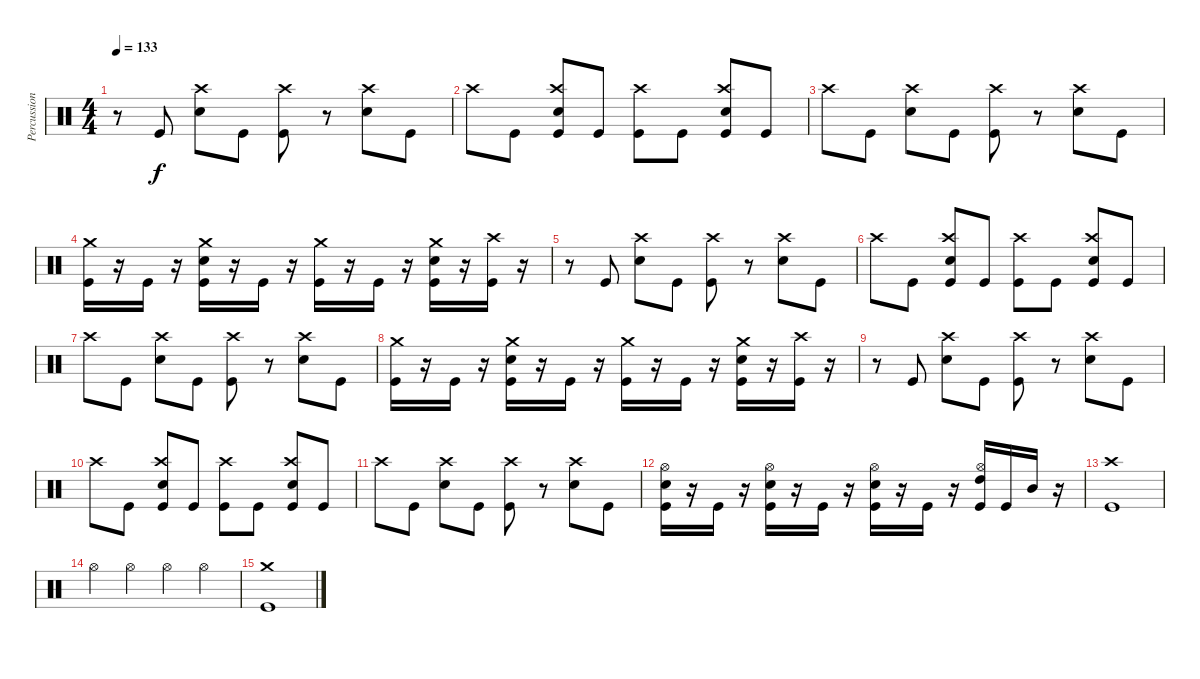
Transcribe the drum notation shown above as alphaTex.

\track ("Percussion" "Percussion") {instrument percussion}
\staff {score}
\articulation defaults
\ts (4 4)
\tempo 133
\clef neutral
\ks c
r.8{dy f} "Kick (hit)".8 ("Crash high (hit)" "Electric Snare (hit)").8 "Kick (hit)".8 ("Crash high (hit)" "Kick (hit)").8 r.8 ("Crash high (hit)" "Electric Snare (hit)").8 "Kick (hit)".8 |
"Crash high (hit)".8 "Kick (hit)".8 ("Crash high (hit)" "Electric Snare (hit)" "Kick (hit)").8 "Kick (hit)".8 ("Crash high (hit)" "Kick (hit)").8 "Kick (hit)".8 ("Crash high (hit)" "Electric Snare (hit)" "Kick (hit)").8 "Kick (hit)".8 |
"Crash high (hit)".8 "Kick (hit)".8 ("Crash high (hit)" "Electric Snare (hit)").8 "Kick (hit)".8 ("Crash high (hit)" "Kick (hit)").8 r.8 ("Crash high (hit)" "Electric Snare (hit)").8 "Kick (hit)".8 |
("Crash medium (hit)" "Kick (hit)").16 r.16 "Kick (hit)".16 r.16 ("Crash medium (hit)" "Electric Snare (hit)" "Kick (hit)").16 r.16 "Kick (hit)".16 r.16 ("Crash medium (hit)" "Kick (hit)").16 r.16 "Kick (hit)".16 r.16 ("Crash medium (hit)" "Electric Snare (hit)" "Kick (hit)").16 r.16 ("Crash high (hit)" "Kick (hit)").16 r.16 |
r.8 "Kick (hit)".8 ("Crash high (hit)" "Electric Snare (hit)").8 "Kick (hit)".8 ("Crash high (hit)" "Kick (hit)").8 r.8 ("Crash high (hit)" "Electric Snare (hit)").8 "Kick (hit)".8 |
"Crash high (hit)".8 "Kick (hit)".8 ("Crash high (hit)" "Electric Snare (hit)" "Kick (hit)").8 "Kick (hit)".8 ("Crash high (hit)" "Kick (hit)").8 "Kick (hit)".8 ("Crash high (hit)" "Electric Snare (hit)" "Kick (hit)").8 "Kick (hit)".8 |
"Crash high (hit)".8 "Kick (hit)".8 ("Crash high (hit)" "Electric Snare (hit)").8 "Kick (hit)".8 ("Crash high (hit)" "Kick (hit)").8 r.8 ("Crash high (hit)" "Electric Snare (hit)").8 "Kick (hit)".8 |
("Crash medium (hit)" "Kick (hit)").16 r.16 "Kick (hit)".16 r.16 ("Crash medium (hit)" "Electric Snare (hit)" "Kick (hit)").16 r.16 "Kick (hit)".16 r.16 ("Crash medium (hit)" "Kick (hit)").16 r.16 "Kick (hit)".16 r.16 ("Crash medium (hit)" "Electric Snare (hit)" "Kick (hit)").16 r.16 ("Crash high (hit)" "Kick (hit)").16 r.16 |
r.8 "Kick (hit)".8 ("Crash high (hit)" "Electric Snare (hit)").8 "Kick (hit)".8 ("Crash high (hit)" "Kick (hit)").8 r.8 ("Crash high (hit)" "Electric Snare (hit)").8 "Kick (hit)".8 |
"Crash high (hit)".8 "Kick (hit)".8 ("Crash high (hit)" "Electric Snare (hit)" "Kick (hit)").8 "Kick (hit)".8 ("Crash high (hit)" "Kick (hit)").8 "Kick (hit)".8 ("Crash high (hit)" "Electric Snare (hit)" "Kick (hit)").8 "Kick (hit)".8 |
"Crash high (hit)".8 "Kick (hit)".8 ("Crash high (hit)" "Electric Snare (hit)").8 "Kick (hit)".8 ("Crash high (hit)" "Kick (hit)").8 r.8 ("Crash high (hit)" "Electric Snare (hit)").8 "Kick (hit)".8 |
("Hi-Hat (open)" "Electric Snare (hit)" "Kick (hit)").16 r.16 "Kick (hit)".16 r.16 ("Hi-Hat (open)" "Electric Snare (hit)" "Kick (hit)").16 r.16 "Kick (hit)".16 r.16 ("Hi-Hat (open)" "Electric Snare (hit)" "Kick (hit)").16 r.16 "Kick (hit)".16 r.16 ("Hi-Hat (open)" "High Tom (hit)" "Kick (hit)").16 "Kick (hit)".16 "Mid Tom (hit)".16 r.16 |
("Crash high (hit)" "Kick (hit)").1 |
"Hi-Hat (open)".4 "Hi-Hat (open)".4 "Hi-Hat (open)".4 "Hi-Hat (open)".4 |
("Kick (hit)" "Crash medium (hit)").1
